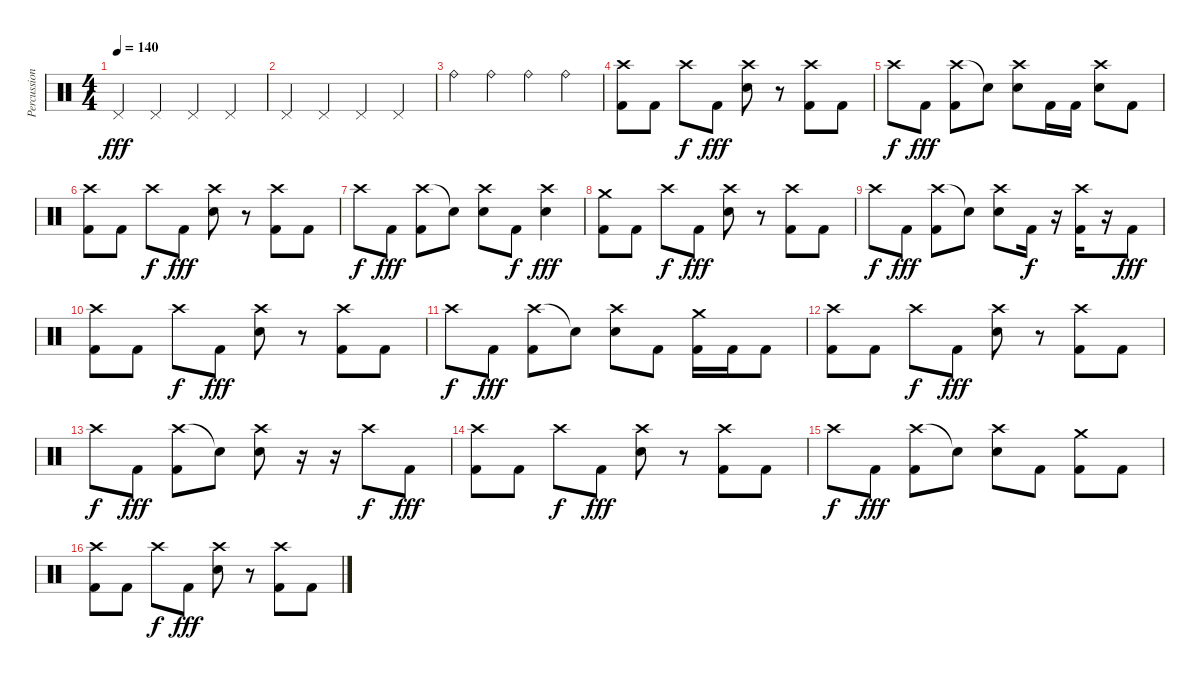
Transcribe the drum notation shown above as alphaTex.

\track ("Percussion" "Percussion") {instrument percussion}
\staff {score}
\articulation defaults
\ts (4 4)
\tempo 140
\clef neutral
\ks c "Pedal Hi-Hat (hit)".4{dy fff} "Pedal Hi-Hat (hit)".4 "Pedal Hi-Hat (hit)".4 "Pedal Hi-Hat (hit)".4
|
"Pedal Hi-Hat (hit)".4 "Pedal Hi-Hat (hit)".4 "Pedal Hi-Hat (hit)".4 "Pedal Hi-Hat (hit)".4 |
"Ride (bell)".4 "Ride (bell)".4 "Ride (bell)".4 "Ride (bell)".4 |
("Crash high (hit)" "Kick (hit) 2").8 "Kick (hit) 2".8 "Crash high (hit)".8{dy f} "Kick (hit) 2".8{dy fff} ("Crash high (hit)" "Electric Snare (hit)").8 r.8 ("Crash high (hit)" "Kick (hit) 2").8 "Kick (hit) 2".8 |
"Crash high (hit)".8{dy f} "Kick (hit) 2".8{dy fff} ("Crash high (hit)" "Kick (hit) 2").8 "Snare (hit)"{t}.8 ("Crash high (hit)" "Electric Snare (hit)").8 "Kick (hit) 2".16 "Kick (hit) 2".16 ("Crash high (hit)" "Electric Snare (hit)").8 "Kick (hit) 2".8 |
("Crash high (hit)" "Kick (hit) 2").8 "Kick (hit) 2".8 "Crash high (hit)".8{dy f} "Kick (hit) 2".8{dy fff} ("Crash high (hit)" "Electric Snare (hit)").8 r.8 ("Crash high (hit)" "Kick (hit) 2").8 "Kick (hit) 2".8 |
"Crash high (hit)".8{dy f} "Kick (hit) 2".8{dy fff} ("Crash high (hit)" "Kick (hit) 2").8 "Snare (hit)"{t}.8 ("Crash high (hit)" "Electric Snare (hit)").8 "Kick (hit) 2".8{dy f} ("Crash high (hit)" "Electric Snare (hit)").4{dy fff} |
("Crash medium (hit)" "Kick (hit) 2").8 "Kick (hit) 2".8 "Crash high (hit)".8{dy f} "Kick (hit) 2".8{dy fff} ("Crash high (hit)" "Electric Snare (hit)").8 r.8 ("Crash high (hit)" "Kick (hit) 2").8 "Kick (hit) 2".8 |
"Crash high (hit)".8{dy f} "Kick (hit) 2".8{dy fff} ("Crash high (hit)" "Kick (hit) 2").8 "Snare (hit)"{t}.8 ("Crash high (hit)" "Electric Snare (hit)").8 "Kick (hit) 2".16{dy f} r.16 ("Crash high (hit)" "Kick (hit) 2").16 r.16 "Kick (hit) 2".8{dy fff} |
("Crash high (hit)" "Kick (hit) 2").8 "Kick (hit) 2".8 "Crash high (hit)".8{dy f} "Kick (hit) 2".8{dy fff} ("Crash high (hit)" "Electric Snare (hit)").8 r.8 ("Crash high (hit)" "Kick (hit) 2").8 "Kick (hit) 2".8 |
"Crash high (hit)".8{dy f} "Kick (hit) 2".8{dy fff} ("Crash high (hit)" "Kick (hit) 2").8 "Snare (hit)"{t}.8 ("Crash high (hit)" "Electric Snare (hit)").8 "Kick (hit) 2".8 ("Crash medium (hit)" "Kick (hit) 2").16 "Kick (hit) 2".16 "Kick (hit) 2".8 |
("Crash high (hit)" "Kick (hit) 2").8 "Kick (hit) 2".8 "Crash high (hit)".8{dy f} "Kick (hit) 2".8{dy fff} ("Crash high (hit)" "Electric Snare (hit)").8 r.8 ("Crash high (hit)" "Kick (hit) 2").8 "Kick (hit) 2".8 |
"Crash high (hit)".8{dy f} "Kick (hit) 2".8{dy fff} ("Crash high (hit)" "Kick (hit) 2").8 "Snare (hit)"{t}.8 ("Crash high (hit)" "Electric Snare (hit)").8 r.16 r.16 "Crash high (hit)".8{dy f} "Kick (hit) 2".8{dy fff} |
("Crash high (hit)" "Kick (hit) 2").8 "Kick (hit) 2".8 "Crash high (hit)".8{dy f} "Kick (hit) 2".8{dy fff} ("Crash high (hit)" "Electric Snare (hit)").8 r.8 ("Crash high (hit)" "Kick (hit) 2").8 "Kick (hit) 2".8 |
"Crash high (hit)".8{dy f} "Kick (hit) 2".8{dy fff} ("Crash high (hit)" "Kick (hit) 2").8 "Snare (hit)"{t}.8 ("Crash high (hit)" "Electric Snare (hit)").8 "Kick (hit) 2".8 ("Crash medium (hit)" "Kick (hit) 2").8 "Kick (hit) 2".8 |
("Crash high (hit)" "Kick (hit) 2").8 "Kick (hit) 2".8 "Crash high (hit)".8{dy f} "Kick (hit) 2".8{dy fff} ("Crash high (hit)" "Electric Snare (hit)").8 r.8 ("Crash high (hit)" "Kick (hit) 2").8 "Kick (hit) 2".8
